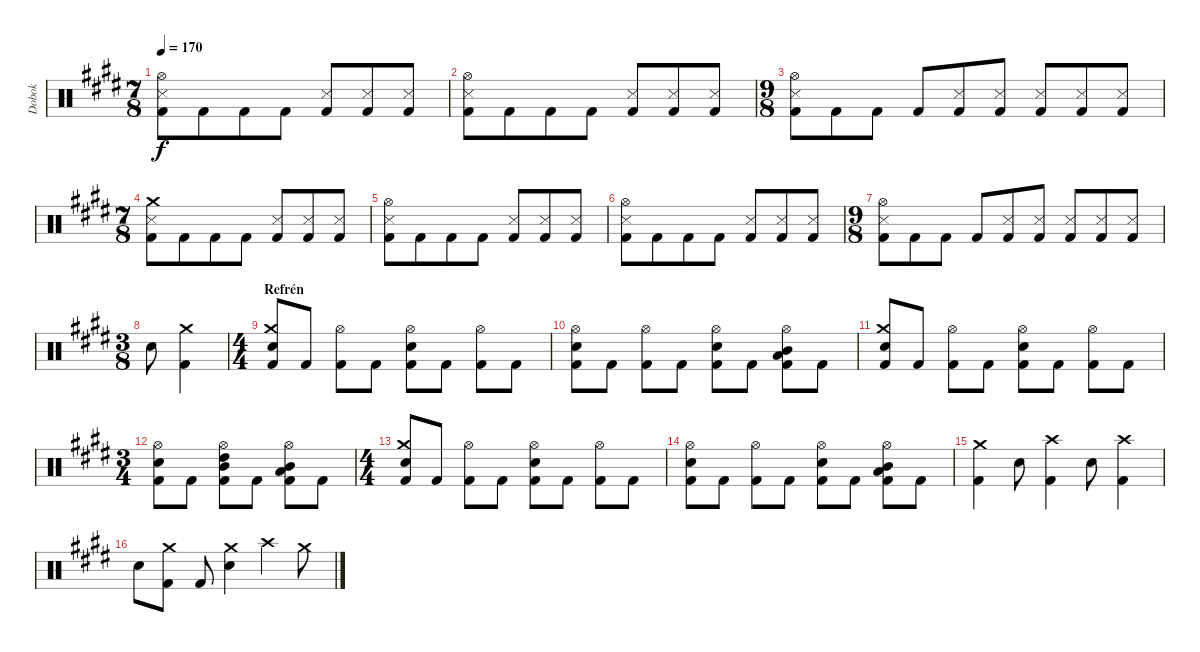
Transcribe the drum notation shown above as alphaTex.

\track ("Dobok" "Dobok") {instrument percussion}
\staff {score}
\articulation defaults
\ts (7 8)
\tempo 170
\clef neutral
\ks c#minor
("Hi-Hat (open)" "Snare (side stick) 3" "Kick (hit) 2").8{dy f} "Kick (hit) 2".8 "Kick (hit) 2".8 "Kick (hit) 2".8 ("Snare (side stick) 3" "Kick (hit) 2").8 ("Snare (side stick) 3" "Kick (hit) 2").8 ("Snare (side stick) 3" "Kick (hit) 2").8 |
("Hi-Hat (open)" "Snare (side stick) 3" "Kick (hit) 2").8 "Kick (hit) 2".8 "Kick (hit) 2".8 "Kick (hit) 2".8 ("Snare (side stick) 3" "Kick (hit) 2").8 ("Snare (side stick) 3" "Kick (hit) 2").8 ("Snare (side stick) 3" "Kick (hit) 2").8 |
\ts (9 8)
("Hi-Hat (open)" "Snare (side stick) 3" "Kick (hit) 2").8 "Kick (hit) 2".8 "Kick (hit) 2".8 "Kick (hit) 2".8 ("Snare (side stick) 3" "Kick (hit) 2").8 ("Snare (side stick) 3" "Kick (hit) 2").8 ("Snare (side stick) 3" "Kick (hit) 2").8 ("Snare (side stick) 3" "Kick (hit) 2").8 ("Snare (side stick) 3" "Kick (hit) 2").8 |
\ts (7 8)
("Crash medium (hit)" "Snare (side stick) 3" "Kick (hit) 2").8 "Kick (hit) 2".8 "Kick (hit) 2".8 "Kick (hit) 2".8 ("Snare (side stick) 3" "Kick (hit) 2").8 ("Snare (side stick) 3" "Kick (hit) 2").8 ("Snare (side stick) 3" "Kick (hit) 2").8 |
("Hi-Hat (open)" "Snare (side stick) 3" "Kick (hit) 2").8 "Kick (hit) 2".8 "Kick (hit) 2".8 "Kick (hit) 2".8 ("Snare (side stick) 3" "Kick (hit) 2").8 ("Snare (side stick) 3" "Kick (hit) 2").8 ("Snare (side stick) 3" "Kick (hit) 2").8 |
("Hi-Hat (open)" "Snare (side stick) 3" "Kick (hit) 2").8 "Kick (hit) 2".8 "Kick (hit) 2".8 "Kick (hit) 2".8 ("Snare (side stick) 3" "Kick (hit) 2").8 ("Snare (side stick) 3" "Kick (hit) 2").8 ("Snare (side stick) 3" "Kick (hit) 2").8 |
\ts (9 8)
("Hi-Hat (open)" "Snare (side stick) 3" "Kick (hit) 2").8 "Kick (hit) 2".8 "Kick (hit) 2".8 "Kick (hit) 2".8 ("Snare (side stick) 3" "Kick (hit) 2").8 ("Snare (side stick) 3" "Kick (hit) 2").8 ("Snare (side stick) 3" "Kick (hit) 2").8 ("Snare (side stick) 3" "Kick (hit) 2").8 ("Snare (side stick) 3" "Kick (hit) 2").8 |
\ts (3 8)
"Snare (hit) 2".8 ("Crash medium (hit)" "Kick (hit) 2").4 |
\ts (4 4)
\section ("" "Refrén")
("Crash medium (hit)" "Snare (hit) 2" "Kick (hit) 2").8 "Kick (hit) 2".8 ("Hi-Hat (open)" "Kick (hit) 2").8 "Kick (hit) 2".8 ("Hi-Hat (open)" "Snare (hit) 2" "Kick (hit) 2").8 "Kick (hit) 2".8 ("Hi-Hat (open)" "Kick (hit) 2").8 "Kick (hit) 2".8 |
("Hi-Hat (open)" "Snare (hit) 2" "Kick (hit) 2").8 "Kick (hit) 2".8 ("Hi-Hat (open)" "Kick (hit) 2").8 "Kick (hit) 2".8 ("Hi-Hat (open)" "Snare (hit) 2" "Kick (hit) 2").8 "Kick (hit) 2".8 ("Hi-Hat (open)" "Low Tom (hit)" "Mid Tom (hit)" "Kick (hit) 2").8 "Kick (hit) 2".8 |
("Crash medium (hit)" "Snare (hit) 2" "Kick (hit) 2").8 "Kick (hit) 2".8 ("Hi-Hat (open)" "Kick (hit) 2").8 "Kick (hit) 2".8 ("Hi-Hat (open)" "Snare (hit) 2" "Kick (hit) 2").8 "Kick (hit) 2".8 ("Hi-Hat (open)" "Kick (hit) 2").8 "Kick (hit) 2".8 |
\ts (3 4)
("Hi-Hat (open)" "Snare (hit) 2" "Kick (hit) 2").8 "Kick (hit) 2".8 ("Hi-Hat (open)" "High Tom (hit)" "Mid Tom (hit)" "Kick (hit) 2").8 "Kick (hit) 2".8 ("Hi-Hat (open)" "Mid Tom (hit)" "Low Tom (hit)" "Kick (hit) 2").8 "Kick (hit) 2".8 |
\ts (4 4)
("Crash medium (hit)" "Snare (hit) 2" "Kick (hit) 2").8 "Kick (hit) 2".8 ("Hi-Hat (open)" "Kick (hit) 2").8 "Kick (hit) 2".8 ("Hi-Hat (open)" "Snare (hit) 2" "Kick (hit) 2").8 "Kick (hit) 2".8 ("Hi-Hat (open)" "Kick (hit) 2").8 "Kick (hit) 2".8 |
("Hi-Hat (open)" "Snare (hit) 2" "Kick (hit) 2").8 "Kick (hit) 2".8 ("Hi-Hat (open)" "Kick (hit) 2").8 "Kick (hit) 2".8 ("Hi-Hat (open)" "Snare (hit) 2" "Kick (hit) 2").8 "Kick (hit) 2".8 ("Hi-Hat (open)" "Low Tom (hit)" "Mid Tom (hit)" "Kick (hit) 2").8 "Kick (hit) 2".8 |
("Crash medium (hit)" "Kick (hit) 2").4 "Snare (hit) 2".8 ("Crash high (hit)" "Kick (hit) 2").4 "Snare (hit) 2".8 ("Crash high (hit)" "Kick (hit) 2").4 |
"Snare (hit) 2".8 ("Crash medium (hit)" "Kick (hit) 2").8 "Kick (hit) 2".8 ("Crash medium (hit)" "Snare (hit) 2").4 "Crash high (hit)".4 "Crash medium (hit)".8
